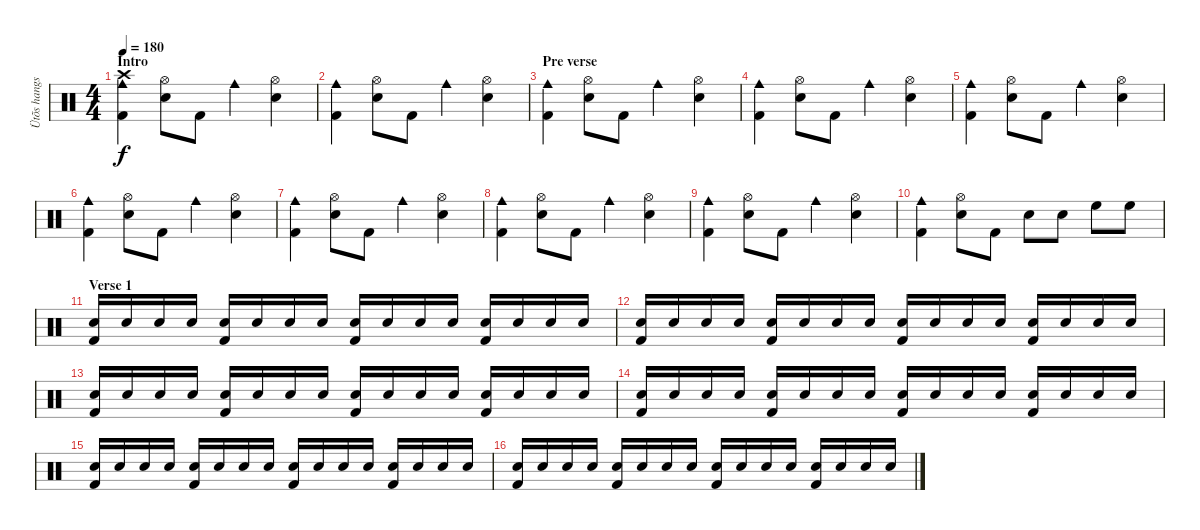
\track ("Ütõs hangszer" "Ütõs hangs") {instrument percussion}
\staff {score}
\articulation defaults
\ts (4 4)
\section ("" "Intro")
\tempo 180
\clef neutral
\ks c
("Crash high (hit)" "Cowbell medium (hit)" "Kick (hit) 2").4{dy f} ("Hi-Hat (open)" "Electric Snare (hit)").8 "Kick (hit) 2".8 "Cowbell medium (hit)".4 ("Hi-Hat (open)" "Electric Snare (hit)").4 |
("Cowbell medium (hit)" "Kick (hit) 2").4 ("Hi-Hat (open)" "Electric Snare (hit)").8 "Kick (hit) 2".8 "Cowbell medium (hit)".4 ("Hi-Hat (open)" "Electric Snare (hit)").4 |
\section ("" "Pre verse")
("Cowbell medium (hit)" "Kick (hit) 2").4 ("Hi-Hat (open)" "Electric Snare (hit)").8 "Kick (hit) 2".8 "Cowbell medium (hit)".4 ("Hi-Hat (open)" "Electric Snare (hit)").4 |
("Cowbell medium (hit)" "Kick (hit) 2").4 ("Hi-Hat (open)" "Electric Snare (hit)").8 "Kick (hit) 2".8 "Cowbell medium (hit)".4 ("Hi-Hat (open)" "Electric Snare (hit)").4 |
("Cowbell medium (hit)" "Kick (hit) 2").4 ("Hi-Hat (open)" "Electric Snare (hit)").8 "Kick (hit) 2".8 "Cowbell medium (hit)".4 ("Hi-Hat (open)" "Electric Snare (hit)").4 |
("Cowbell medium (hit)" "Kick (hit) 2").4 ("Hi-Hat (open)" "Electric Snare (hit)").8 "Kick (hit) 2".8 "Cowbell medium (hit)".4 ("Hi-Hat (open)" "Electric Snare (hit)").4 |
("Cowbell medium (hit)" "Kick (hit) 2").4 ("Hi-Hat (open)" "Electric Snare (hit)").8 "Kick (hit) 2".8 "Cowbell medium (hit)".4 ("Hi-Hat (open)" "Electric Snare (hit)").4 |
("Cowbell medium (hit)" "Kick (hit) 2").4 ("Hi-Hat (open)" "Electric Snare (hit)").8 "Kick (hit) 2".8 "Cowbell medium (hit)".4 ("Hi-Hat (open)" "Electric Snare (hit)").4 |
("Cowbell medium (hit)" "Kick (hit) 2").4 ("Hi-Hat (open)" "Electric Snare (hit)").8 "Kick (hit) 2".8 "Cowbell medium (hit)".4 ("Hi-Hat (open)" "Electric Snare (hit)").4 |
("Cowbell medium (hit)" "Kick (hit) 2").4 ("Hi-Hat (open)" "Electric Snare (hit)").8 "Kick (hit) 2".8 "Electric Snare (hit)".8 "Electric Snare (hit)".8 "High Floor Tom (hit)".8 "High Floor Tom (hit)".8 |
\section ("" "Verse 1")
("Snare (hit) 2" "Kick (hit) 2").16 "Electric Snare (hit)".16 "Electric Snare (hit)".16 "Electric Snare (hit)".16 ("Snare (hit) 2" "Kick (hit) 2").16 "Electric Snare (hit)".16 "Electric Snare (hit)".16 "Electric Snare (hit)".16 ("Snare (hit) 2" "Kick (hit) 2").16 "Electric Snare (hit)".16 "Electric Snare (hit)".16 "Electric Snare (hit)".16 ("Snare (hit) 2" "Kick (hit) 2").16 "Electric Snare (hit)".16 "Electric Snare (hit)".16 "Electric Snare (hit)".16 |
("Snare (hit) 2" "Kick (hit) 2").16 "Electric Snare (hit)".16 "Electric Snare (hit)".16 "Electric Snare (hit)".16 ("Snare (hit) 2" "Kick (hit) 2").16 "Electric Snare (hit)".16 "Electric Snare (hit)".16 "Electric Snare (hit)".16 ("Snare (hit) 2" "Kick (hit) 2").16 "Electric Snare (hit)".16 "Electric Snare (hit)".16 "Electric Snare (hit)".16 ("Snare (hit) 2" "Kick (hit) 2").16 "Electric Snare (hit)".16 "Electric Snare (hit)".16 "Electric Snare (hit)".16 |
("Snare (hit) 2" "Kick (hit) 2").16 "Electric Snare (hit)".16 "Electric Snare (hit)".16 "Electric Snare (hit)".16 ("Snare (hit) 2" "Kick (hit) 2").16 "Electric Snare (hit)".16 "Electric Snare (hit)".16 "Electric Snare (hit)".16 ("Snare (hit) 2" "Kick (hit) 2").16 "Electric Snare (hit)".16 "Electric Snare (hit)".16 "Electric Snare (hit)".16 ("Snare (hit) 2" "Kick (hit) 2").16 "Electric Snare (hit)".16 "Electric Snare (hit)".16 "Electric Snare (hit)".16 |
("Snare (hit) 2" "Kick (hit) 2").16 "Electric Snare (hit)".16 "Electric Snare (hit)".16 "Electric Snare (hit)".16 ("Snare (hit) 2" "Kick (hit) 2").16 "Electric Snare (hit)".16 "Electric Snare (hit)".16 "Electric Snare (hit)".16 ("Snare (hit) 2" "Kick (hit) 2").16 "Electric Snare (hit)".16 "Electric Snare (hit)".16 "Electric Snare (hit)".16 ("Snare (hit) 2" "Kick (hit) 2").16 "Electric Snare (hit)".16 "Electric Snare (hit)".16 "Electric Snare (hit)".16 |
("Snare (hit) 2" "Kick (hit) 2").16 "Electric Snare (hit)".16 "Electric Snare (hit)".16 "Electric Snare (hit)".16 ("Snare (hit) 2" "Kick (hit) 2").16 "Electric Snare (hit)".16 "Electric Snare (hit)".16 "Electric Snare (hit)".16 ("Snare (hit) 2" "Kick (hit) 2").16 "Electric Snare (hit)".16 "Electric Snare (hit)".16 "Electric Snare (hit)".16 ("Snare (hit) 2" "Kick (hit) 2").16 "Electric Snare (hit)".16 "Electric Snare (hit)".16 "Electric Snare (hit)".16 |
("Snare (hit) 2" "Kick (hit) 2").16 "Electric Snare (hit)".16 "Electric Snare (hit)".16 "Electric Snare (hit)".16 ("Snare (hit) 2" "Kick (hit) 2").16 "Electric Snare (hit)".16 "Electric Snare (hit)".16 "Electric Snare (hit)".16 ("Snare (hit) 2" "Kick (hit) 2").16 "Electric Snare (hit)".16 "Electric Snare (hit)".16 "Electric Snare (hit)".16 ("Snare (hit) 2" "Kick (hit) 2").16 "Electric Snare (hit)".16 "Electric Snare (hit)".16 "Electric Snare (hit)".16
